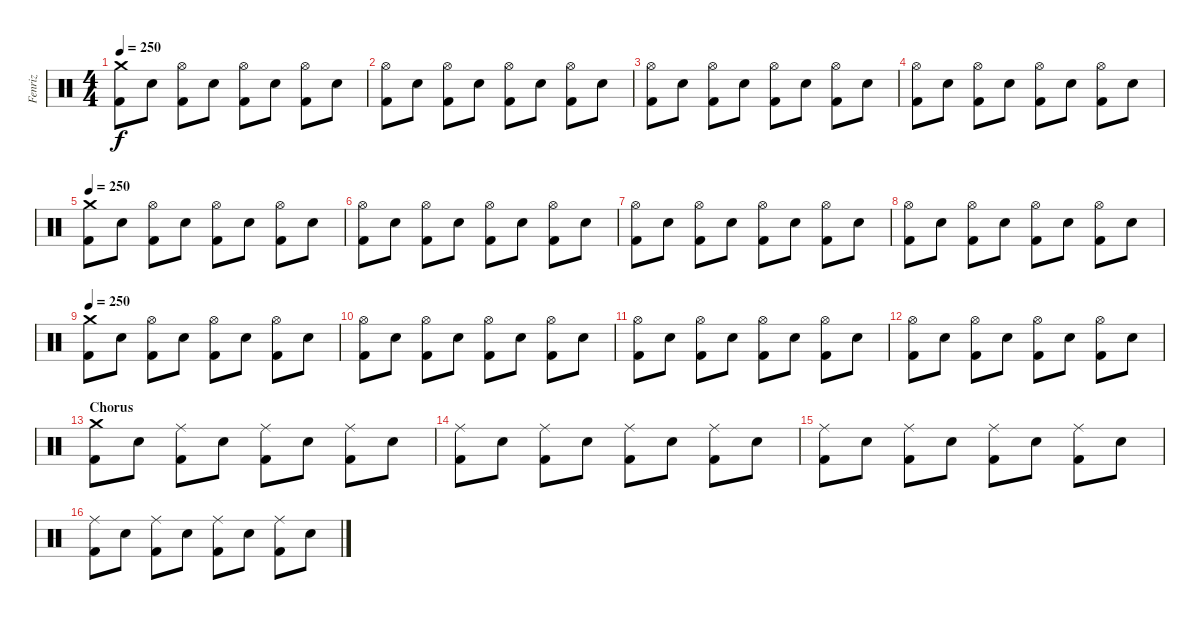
\track ("Fenriz" "Fenriz") {instrument percussion}
\staff {score}
\articulation defaults
\ts (4 4)
\tempo 250
\clef neutral
\ks c
("Crash medium (hit)" "Kick (hit) 2").8{dy f} "Electric Snare (hit)".8 ("Hi-Hat (open)" "Kick (hit) 2").8 "Electric Snare (hit)".8 ("Hi-Hat (open)" "Kick (hit) 2").8 "Electric Snare (hit)".8 ("Hi-Hat (open)" "Kick (hit) 2").8 "Electric Snare (hit)".8 |
("Hi-Hat (open)" "Kick (hit) 2").8 "Electric Snare (hit)".8 ("Hi-Hat (open)" "Kick (hit) 2").8 "Electric Snare (hit)".8 ("Hi-Hat (open)" "Kick (hit) 2").8 "Electric Snare (hit)".8 ("Hi-Hat (open)" "Kick (hit) 2").8 "Electric Snare (hit)".8 |
("Hi-Hat (open)" "Kick (hit) 2").8 "Electric Snare (hit)".8 ("Hi-Hat (open)" "Kick (hit) 2").8 "Electric Snare (hit)".8 ("Hi-Hat (open)" "Kick (hit) 2").8 "Electric Snare (hit)".8 ("Hi-Hat (open)" "Kick (hit) 2").8 "Electric Snare (hit)".8 |
("Hi-Hat (open)" "Kick (hit) 2").8 "Electric Snare (hit)".8 ("Hi-Hat (open)" "Kick (hit) 2").8 "Electric Snare (hit)".8 ("Hi-Hat (open)" "Kick (hit) 2").8 "Electric Snare (hit)".8 ("Hi-Hat (open)" "Kick (hit) 2").8 "Electric Snare (hit)".8 |
\tempo 250
("Crash medium (hit)" "Kick (hit) 2").8 "Electric Snare (hit)".8 ("Hi-Hat (open)" "Kick (hit) 2").8 "Electric Snare (hit)".8 ("Hi-Hat (open)" "Kick (hit) 2").8 "Electric Snare (hit)".8 ("Hi-Hat (open)" "Kick (hit) 2").8 "Electric Snare (hit)".8 |
("Hi-Hat (open)" "Kick (hit) 2").8 "Electric Snare (hit)".8 ("Hi-Hat (open)" "Kick (hit) 2").8 "Electric Snare (hit)".8 ("Hi-Hat (open)" "Kick (hit) 2").8 "Electric Snare (hit)".8 ("Hi-Hat (open)" "Kick (hit) 2").8 "Electric Snare (hit)".8 |
("Hi-Hat (open)" "Kick (hit) 2").8 "Electric Snare (hit)".8 ("Hi-Hat (open)" "Kick (hit) 2").8 "Electric Snare (hit)".8 ("Hi-Hat (open)" "Kick (hit) 2").8 "Electric Snare (hit)".8 ("Hi-Hat (open)" "Kick (hit) 2").8 "Electric Snare (hit)".8 |
("Hi-Hat (open)" "Kick (hit) 2").8 "Electric Snare (hit)".8 ("Hi-Hat (open)" "Kick (hit) 2").8 "Electric Snare (hit)".8 ("Hi-Hat (open)" "Kick (hit) 2").8 "Electric Snare (hit)".8 ("Hi-Hat (open)" "Kick (hit) 2").8 "Electric Snare (hit)".8 |
\tempo 250
("Crash medium (hit)" "Kick (hit) 2").8 "Electric Snare (hit)".8 ("Hi-Hat (open)" "Kick (hit) 2").8 "Electric Snare (hit)".8 ("Hi-Hat (open)" "Kick (hit) 2").8 "Electric Snare (hit)".8 ("Hi-Hat (open)" "Kick (hit) 2").8 "Electric Snare (hit)".8 |
("Hi-Hat (open)" "Kick (hit) 2").8 "Electric Snare (hit)".8 ("Hi-Hat (open)" "Kick (hit) 2").8 "Electric Snare (hit)".8 ("Hi-Hat (open)" "Kick (hit) 2").8 "Electric Snare (hit)".8 ("Hi-Hat (open)" "Kick (hit) 2").8 "Electric Snare (hit)".8 |
("Hi-Hat (open)" "Kick (hit) 2").8 "Electric Snare (hit)".8 ("Hi-Hat (open)" "Kick (hit) 2").8 "Electric Snare (hit)".8 ("Hi-Hat (open)" "Kick (hit) 2").8 "Electric Snare (hit)".8 ("Hi-Hat (open)" "Kick (hit) 2").8 "Electric Snare (hit)".8 |
("Hi-Hat (open)" "Kick (hit) 2").8 "Electric Snare (hit)".8 ("Hi-Hat (open)" "Kick (hit) 2").8 "Electric Snare (hit)".8 ("Hi-Hat (open)" "Kick (hit) 2").8 "Electric Snare (hit)".8 ("Hi-Hat (open)" "Kick (hit) 2").8 "Electric Snare (hit)".8 |
\section ("" "Chorus")
("Crash medium (hit)" "Kick (hit) 2").8 "Electric Snare (hit)".8 ("Ride (middle)" "Kick (hit) 2").8 "Electric Snare (hit)".8 ("Ride (middle)" "Kick (hit) 2").8 "Electric Snare (hit)".8 ("Ride (middle)" "Kick (hit) 2").8 "Electric Snare (hit)".8 |
("Ride (middle)" "Kick (hit) 2").8 "Electric Snare (hit)".8 ("Ride (middle)" "Kick (hit) 2").8 "Electric Snare (hit)".8 ("Ride (middle)" "Kick (hit) 2").8 "Electric Snare (hit)".8 ("Ride (middle)" "Kick (hit) 2").8 "Electric Snare (hit)".8 |
("Ride (middle)" "Kick (hit) 2").8 "Electric Snare (hit)".8 ("Ride (middle)" "Kick (hit) 2").8 "Electric Snare (hit)".8 ("Ride (middle)" "Kick (hit) 2").8 "Electric Snare (hit)".8 ("Ride (middle)" "Kick (hit) 2").8 "Electric Snare (hit)".8 |
("Ride (middle)" "Kick (hit) 2").8 "Electric Snare (hit)".8 ("Ride (middle)" "Kick (hit) 2").8 "Electric Snare (hit)".8 ("Ride (middle)" "Kick (hit) 2").8 "Electric Snare (hit)".8 ("Ride (middle)" "Kick (hit) 2").8 "Electric Snare (hit)".8
